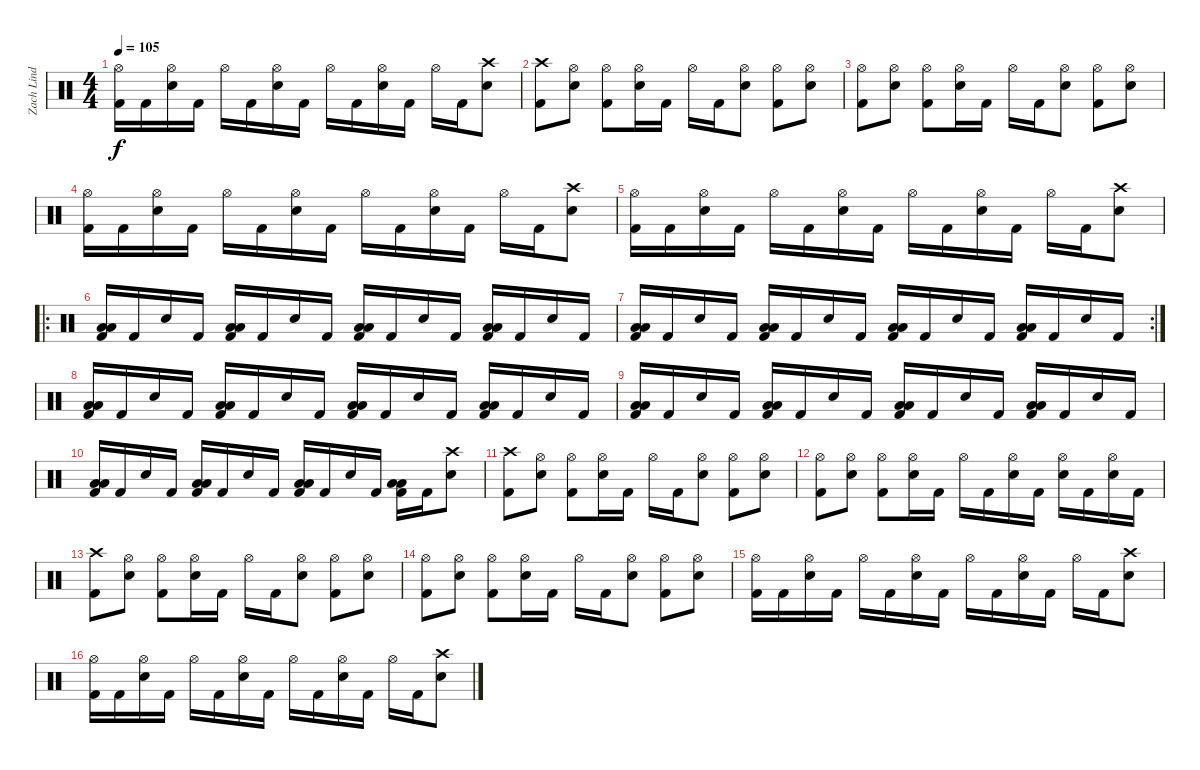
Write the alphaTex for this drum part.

\track ("Zach Lind" "Zach Lind") {instrument percussion}
\staff {score}
\articulation defaults
\ts (4 4)
\tempo 105
\clef neutral
\ks c
("Hi-Hat (open)" "Kick (hit) 2").16{dy f} "Kick (hit) 2".16 ("Hi-Hat (open)" "Snare (hit) 2").16 "Kick (hit) 2".16 "Hi-Hat (open)".16 "Kick (hit) 2".16 ("Hi-Hat (open)" "Snare (hit) 2").16 "Kick (hit) 2".16 "Hi-Hat (open)".16 "Kick (hit) 2".16 ("Hi-Hat (open)" "Snare (hit) 2").16 "Kick (hit) 2".16 "Hi-Hat (open)".16 "Kick (hit) 2".16 ("Crash high (hit)" "Snare (hit) 2").8 |
("Crash high (hit)" "Kick (hit) 2").8 ("Hi-Hat (open)" "Snare (hit) 2").8 ("Hi-Hat (open)" "Kick (hit) 2").8 ("Hi-Hat (open)" "Snare (hit) 2").16 "Kick (hit) 2".16 "Hi-Hat (open)".16 "Kick (hit) 2".16 ("Hi-Hat (open)" "Snare (hit) 2").8 ("Hi-Hat (open)" "Kick (hit) 2").8 ("Hi-Hat (open)" "Snare (hit) 2").8 |
("Hi-Hat (open)" "Kick (hit) 2").8 ("Hi-Hat (open)" "Snare (hit) 2").8 ("Hi-Hat (open)" "Kick (hit) 2").8 ("Hi-Hat (open)" "Snare (hit) 2").16 "Kick (hit) 2".16 "Hi-Hat (open)".16 "Kick (hit) 2".16 ("Hi-Hat (open)" "Snare (hit) 2").8 ("Hi-Hat (open)" "Kick (hit) 2").8 ("Hi-Hat (open)" "Snare (hit) 2").8 |
("Hi-Hat (open)" "Kick (hit) 2").16 "Kick (hit) 2".16 ("Hi-Hat (open)" "Snare (hit) 2").16 "Kick (hit) 2".16 "Hi-Hat (open)".16 "Kick (hit) 2".16 ("Hi-Hat (open)" "Snare (hit) 2").16 "Kick (hit) 2".16 "Hi-Hat (open)".16 "Kick (hit) 2".16 ("Hi-Hat (open)" "Snare (hit) 2").16 "Kick (hit) 2".16 "Hi-Hat (open)".16 "Kick (hit) 2".16 ("Crash high (hit)" "Snare (hit) 2").8 |
("Hi-Hat (open)" "Kick (hit) 2").16 "Kick (hit) 2".16 ("Hi-Hat (open)" "Snare (hit) 2").16 "Kick (hit) 2".16 "Hi-Hat (open)".16 "Kick (hit) 2".16 ("Hi-Hat (open)" "Snare (hit) 2").16 "Kick (hit) 2".16 "Hi-Hat (open)".16 "Kick (hit) 2".16 ("Hi-Hat (open)" "Snare (hit) 2").16 "Kick (hit) 2".16 "Hi-Hat (open)".16 "Kick (hit) 2".16 ("Crash high (hit)" "Snare (hit) 2").8 |
\ro
("Low Tom (hit)" "Low Floor Tom (hit)" "Kick (hit) 2").16 "Kick (hit) 2".16 "Snare (hit) 2".16 "Kick (hit) 2".16 ("Low Tom (hit)" "Low Floor Tom (hit)" "Kick (hit) 2").16 "Kick (hit) 2".16 "Snare (hit) 2".16 "Kick (hit) 2".16 ("Low Tom (hit)" "Low Floor Tom (hit)" "Kick (hit) 2").16 "Kick (hit) 2".16 "Snare (hit) 2".16 "Kick (hit) 2".16 ("Low Tom (hit)" "Low Floor Tom (hit)" "Kick (hit) 2").16 "Kick (hit) 2".16 "Snare (hit) 2".16 "Kick (hit) 2".16 |
\rc 2
("Low Tom (hit)" "Low Floor Tom (hit)" "Kick (hit) 2").16 "Kick (hit) 2".16 "Snare (hit) 2".16 "Kick (hit) 2".16 ("Low Tom (hit)" "Low Floor Tom (hit)" "Kick (hit) 2").16 "Kick (hit) 2".16 "Snare (hit) 2".16 "Kick (hit) 2".16 ("Low Tom (hit)" "Low Floor Tom (hit)" "Kick (hit) 2").16 "Kick (hit) 2".16 "Snare (hit) 2".16 "Kick (hit) 2".16 ("Low Tom (hit)" "Low Floor Tom (hit)" "Kick (hit) 2").16 "Kick (hit) 2".16 "Snare (hit) 2".16 "Kick (hit) 2".16 |
("Low Tom (hit)" "Low Floor Tom (hit)" "Kick (hit) 2").16 "Kick (hit) 2".16 "Snare (hit) 2".16 "Kick (hit) 2".16 ("Low Tom (hit)" "Low Floor Tom (hit)" "Kick (hit) 2").16 "Kick (hit) 2".16 "Snare (hit) 2".16 "Kick (hit) 2".16 ("Low Tom (hit)" "Low Floor Tom (hit)" "Kick (hit) 2").16 "Kick (hit) 2".16 "Snare (hit) 2".16 "Kick (hit) 2".16 ("Low Tom (hit)" "Low Floor Tom (hit)" "Kick (hit) 2").16 "Kick (hit) 2".16 "Snare (hit) 2".16 "Kick (hit) 2".16 |
("Low Tom (hit)" "Low Floor Tom (hit)" "Kick (hit) 2").16 "Kick (hit) 2".16 "Snare (hit) 2".16 "Kick (hit) 2".16 ("Low Tom (hit)" "Low Floor Tom (hit)" "Kick (hit) 2").16 "Kick (hit) 2".16 "Snare (hit) 2".16 "Kick (hit) 2".16 ("Low Tom (hit)" "Low Floor Tom (hit)" "Kick (hit) 2").16 "Kick (hit) 2".16 "Snare (hit) 2".16 "Kick (hit) 2".16 ("Low Tom (hit)" "Low Floor Tom (hit)" "Kick (hit) 2").16 "Kick (hit) 2".16 "Snare (hit) 2".16 "Kick (hit) 2".16 |
("Low Tom (hit)" "Low Floor Tom (hit)" "Kick (hit) 2").16 "Kick (hit) 2".16 "Snare (hit) 2".16 "Kick (hit) 2".16 ("Low Tom (hit)" "Low Floor Tom (hit)" "Kick (hit) 2").16 "Kick (hit) 2".16 "Snare (hit) 2".16 "Kick (hit) 2".16 ("Low Tom (hit)" "Low Floor Tom (hit)" "Kick (hit) 2").16 "Kick (hit) 2".16 "Snare (hit) 2".16 "Kick (hit) 2".16 ("Low Tom (hit)" "Low Floor Tom (hit)" "Kick (hit) 2").16 "Kick (hit) 2".16 ("Crash high (hit)" "Snare (hit) 2").8 |
("Crash high (hit)" "Kick (hit) 2").8 ("Hi-Hat (open)" "Snare (hit) 2").8 ("Hi-Hat (open)" "Kick (hit) 2").8 ("Hi-Hat (open)" "Snare (hit) 2").16 "Kick (hit) 2".16 "Hi-Hat (open)".16 "Kick (hit) 2".16 ("Hi-Hat (open)" "Snare (hit) 2").8 ("Hi-Hat (open)" "Kick (hit) 2").8 ("Hi-Hat (open)" "Snare (hit) 2").8 |
("Hi-Hat (open)" "Kick (hit) 2").8 ("Hi-Hat (open)" "Snare (hit) 2").8 ("Hi-Hat (open)" "Kick (hit) 2").8 ("Hi-Hat (open)" "Snare (hit) 2").16 "Kick (hit) 2".16 "Hi-Hat (open)".16 "Kick (hit) 2".16 ("Hi-Hat (open)" "Snare (hit) 2").16 "Kick (hit) 2".16 ("Hi-Hat (open)" "Snare (hit) 2").16 "Kick (hit) 2".16 ("Hi-Hat (open)" "Snare (hit) 2").16 "Kick (hit) 2".16 |
("Crash high (hit)" "Kick (hit) 2").8 ("Hi-Hat (open)" "Snare (hit) 2").8 ("Hi-Hat (open)" "Kick (hit) 2").8 ("Hi-Hat (open)" "Snare (hit) 2").16 "Kick (hit) 2".16 "Hi-Hat (open)".16 "Kick (hit) 2".16 ("Hi-Hat (open)" "Snare (hit) 2").8 ("Hi-Hat (open)" "Kick (hit) 2").8 ("Hi-Hat (open)" "Snare (hit) 2").8 |
("Hi-Hat (open)" "Kick (hit) 2").8 ("Hi-Hat (open)" "Snare (hit) 2").8 ("Hi-Hat (open)" "Kick (hit) 2").8 ("Hi-Hat (open)" "Snare (hit) 2").16 "Kick (hit) 2".16 "Hi-Hat (open)".16 "Kick (hit) 2".16 ("Hi-Hat (open)" "Snare (hit) 2").8 ("Hi-Hat (open)" "Kick (hit) 2").8 ("Hi-Hat (open)" "Snare (hit) 2").8 |
("Hi-Hat (open)" "Kick (hit) 2").16 "Kick (hit) 2".16 ("Hi-Hat (open)" "Snare (hit) 2").16 "Kick (hit) 2".16 "Hi-Hat (open)".16 "Kick (hit) 2".16 ("Hi-Hat (open)" "Snare (hit) 2").16 "Kick (hit) 2".16 "Hi-Hat (open)".16 "Kick (hit) 2".16 ("Hi-Hat (open)" "Snare (hit) 2").16 "Kick (hit) 2".16 "Hi-Hat (open)".16 "Kick (hit) 2".16 ("Crash high (hit)" "Snare (hit) 2").8 |
("Hi-Hat (open)" "Kick (hit) 2").16 "Kick (hit) 2".16 ("Hi-Hat (open)" "Snare (hit) 2").16 "Kick (hit) 2".16 "Hi-Hat (open)".16 "Kick (hit) 2".16 ("Hi-Hat (open)" "Snare (hit) 2").16 "Kick (hit) 2".16 "Hi-Hat (open)".16 "Kick (hit) 2".16 ("Hi-Hat (open)" "Snare (hit) 2").16 "Kick (hit) 2".16 "Hi-Hat (open)".16 "Kick (hit) 2".16 ("Crash high (hit)" "Snare (hit) 2").8
